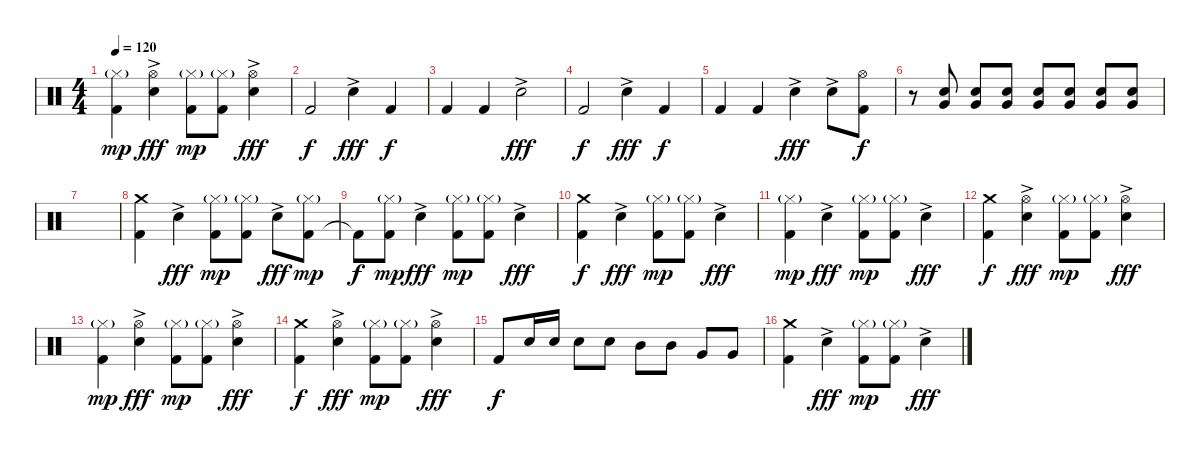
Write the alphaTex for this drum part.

\track "" {instrument percussion}
\staff {score}
\articulation defaults
\ts (4 4)
\tempo 120
\clef neutral
\ks c
("Kick (hit) 2" "Hi-Hat (closed)"{g}).4{dy mp} ("Electric Snare (hit)"{ac} "Hi-Hat (open)").4{dy fff} ("Kick (hit) 2" "Hi-Hat (closed)"{g}).8{dy mp} ("Kick (hit) 2" "Hi-Hat (closed)"{g}).8 ("Electric Snare (hit)"{ac} "Hi-Hat (open)").4{dy fff} |
"Kick (hit) 2".2{dy f} "Electric Snare (hit)"{ac}.4{dy fff} "Kick (hit) 2".4{dy f} |
"Kick (hit) 2".4 "Kick (hit) 2".4 "Electric Snare (hit)"{ac}.2{dy fff} |
"Kick (hit) 2".2{dy f} "Electric Snare (hit)"{ac}.4{dy fff} "Kick (hit) 2".4{dy f} |
"Kick (hit) 2".4 "Kick (hit) 2".4 "Electric Snare (hit)"{ac}.4{dy fff} "Electric Snare (hit)"{ac}.8 ("Kick (hit) 2" "Hi-Hat (open)").8{dy f} |
r.8 ("Electric Snare (hit)" "Very Low Tom (hit)").8 ("Electric Snare (hit)" "Very Low Tom (hit)").8 ("Electric Snare (hit)" "Very Low Tom (hit)").8 ("Electric Snare (hit)" "Very Low Tom (hit)").8 ("Electric Snare (hit)" "Very Low Tom (hit)").8 ("Electric Snare (hit)" "Very Low Tom (hit)").8 ("Electric Snare (hit)" "Very Low Tom (hit)").8 |
|
("Kick (hit) 2" "Crash medium (hit)").4 "Electric Snare (hit)"{ac}.4{dy fff} ("Kick (hit) 2" "Hi-Hat (closed)"{g}).8{dy mp} ("Kick (hit) 2" "Hi-Hat (closed)"{g}).8 "Electric Snare (hit)"{ac}.8{dy fff} ("Kick (hit) 2" "Hi-Hat (closed)"{g}).8{dy mp} |
"Kick (hit) 2"{t}.8{dy f} ("Kick (hit) 2" "Hi-Hat (closed)"{g}).8{dy mp} "Electric Snare (hit)"{ac}.4{dy fff} ("Kick (hit) 2" "Hi-Hat (closed)"{g}).8{dy mp} ("Kick (hit) 2" "Hi-Hat (closed)"{g}).8 "Electric Snare (hit)"{ac}.4{dy fff} |
("Kick (hit) 2" "Crash medium (hit)").4{dy f} "Electric Snare (hit)"{ac}.4{dy fff} ("Kick (hit) 2" "Hi-Hat (closed)"{g}).8{dy mp} ("Kick (hit) 2" "Hi-Hat (closed)"{g}).8 "Electric Snare (hit)"{ac}.4{dy fff} |
("Kick (hit) 2" "Hi-Hat (closed)"{g}).4{dy mp} "Electric Snare (hit)"{ac}.4{dy fff} ("Kick (hit) 2" "Hi-Hat (closed)"{g}).8{dy mp} ("Kick (hit) 2" "Hi-Hat (closed)"{g}).8 "Electric Snare (hit)"{ac}.4{dy fff} |
("Kick (hit) 2" "Crash medium (hit)").4{dy f} ("Electric Snare (hit)"{ac} "Hi-Hat (open)").4{dy fff} ("Kick (hit) 2" "Hi-Hat (closed)"{g}).8{dy mp} ("Kick (hit) 2" "Hi-Hat (closed)"{g}).8 ("Electric Snare (hit)"{ac} "Hi-Hat (open)").4{dy fff} |
("Kick (hit) 2" "Hi-Hat (closed)"{g}).4{dy mp} ("Electric Snare (hit)"{ac} "Hi-Hat (open)").4{dy fff} ("Kick (hit) 2" "Hi-Hat (closed)"{g}).8{dy mp} ("Kick (hit) 2" "Hi-Hat (closed)"{g}).8 ("Electric Snare (hit)"{ac} "Hi-Hat (open)").4{dy fff} |
("Kick (hit) 2" "Crash medium (hit)").4{dy f} ("Electric Snare (hit)"{ac} "Hi-Hat (open)").4{dy fff} ("Kick (hit) 2" "Hi-Hat (closed)"{g}).8{dy mp} ("Kick (hit) 2" "Hi-Hat (closed)"{g}).8 ("Electric Snare (hit)"{ac} "Hi-Hat (open)").4{dy fff} |
"Kick (hit) 2".8{dy f} "Electric Snare (hit)".16 "Electric Snare (hit)".16 "Electric Snare (hit)".8 "Electric Snare (hit)".8 "Mid Tom (hit)".8 "Mid Tom (hit)".8 "Very Low Tom (hit)".8 "Very Low Tom (hit)".8 |
("Kick (hit) 2" "Crash medium (hit)").4 "Electric Snare (hit)"{ac}.4{dy fff} ("Kick (hit) 2" "Hi-Hat (closed)"{g}).8{dy mp} ("Kick (hit) 2" "Hi-Hat (closed)"{g}).8 "Electric Snare (hit)"{ac}.4{dy fff}
